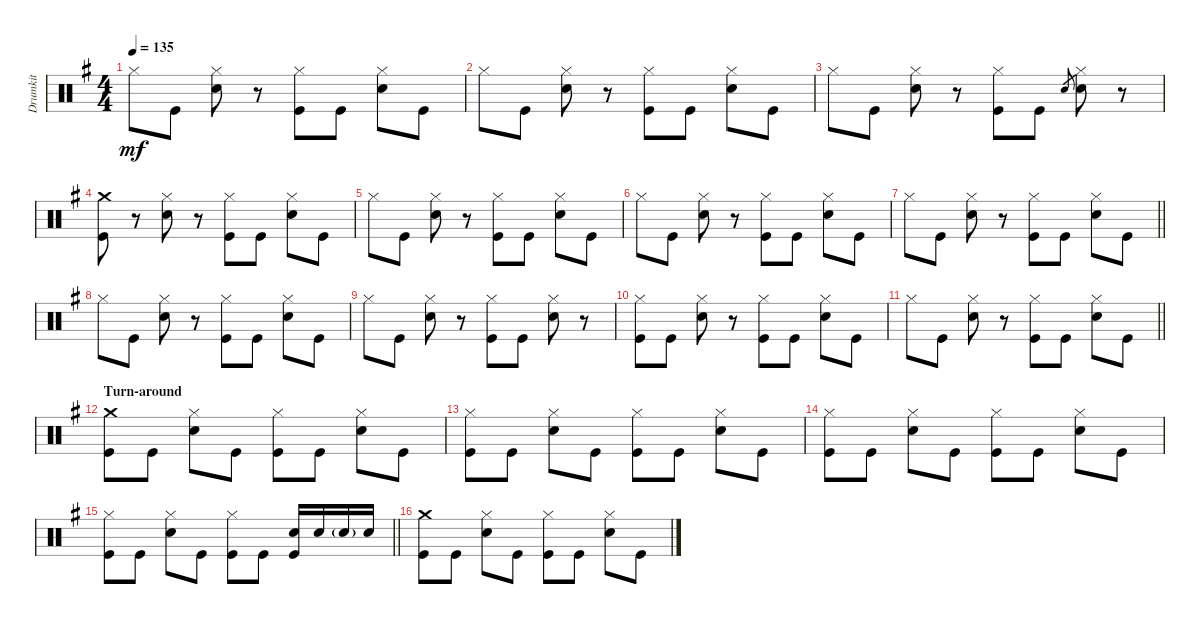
\track ("Drumkit" "Drumkit") {instrument percussion}
\staff {score}
\articulation defaults
\ts (4 4)
\tempo 135
\clef neutral
\ks g "Hi-Hat (closed)".8{dy mf} "Kick (hit)".8
("Hi-Hat (closed)" "Snare (hit) 2").8 r.8 ("Hi-Hat (closed)" "Kick (hit)").8 "Kick (hit)".8 ("Hi-Hat (closed)" "Snare (hit) 2").8 "Kick (hit)".8 |
"Hi-Hat (closed)".8 "Kick (hit)".8 ("Hi-Hat (closed)" "Snare (hit) 2").8 r.8 ("Hi-Hat (closed)" "Kick (hit)").8 "Kick (hit)".8 ("Hi-Hat (closed)" "Snare (hit) 2").8 "Kick (hit)".8 |
"Hi-Hat (closed)".8 "Kick (hit)".8 ("Hi-Hat (closed)" "Snare (hit) 2").8 r.8 ("Hi-Hat (closed)" "Kick (hit)").8 "Kick (hit)".8 "Snare (hit)".8{gr} ("Hi-Hat (closed)" "Snare (hit) 2").8 r.8 |
("Kick (hit)" "Crash medium (hit)").8 r.8 ("Hi-Hat (closed)" "Snare (hit) 2").8 r.8 ("Hi-Hat (closed)" "Kick (hit)").8 "Kick (hit)".8 ("Hi-Hat (closed)" "Snare (hit) 2").8 "Kick (hit)".8 |
"Hi-Hat (closed)".8 "Kick (hit)".8 ("Hi-Hat (closed)" "Snare (hit) 2").8 r.8 ("Hi-Hat (closed)" "Kick (hit)").8 "Kick (hit)".8 ("Hi-Hat (closed)" "Snare (hit) 2").8 "Kick (hit)".8 |
"Hi-Hat (closed)".8 "Kick (hit)".8 ("Hi-Hat (closed)" "Snare (hit) 2").8 r.8 ("Hi-Hat (closed)" "Kick (hit)").8 "Kick (hit)".8 ("Hi-Hat (closed)" "Snare (hit) 2").8 "Kick (hit)".8 |
\barLineRight lightlight "Hi-Hat (closed)".8 "Kick (hit)".8
("Hi-Hat (closed)" "Snare (hit) 2").8 r.8 ("Hi-Hat (closed)" "Kick (hit)").8 "Kick (hit)".8 ("Hi-Hat (closed)" "Snare (hit) 2").8 "Kick (hit)".8 |
"Hi-Hat (closed)".8 "Kick (hit)".8 ("Hi-Hat (closed)" "Snare (hit) 2").8 r.8 ("Hi-Hat (closed)" "Kick (hit)").8 "Kick (hit)".8 ("Hi-Hat (closed)" "Snare (hit) 2").8 "Kick (hit)".8 |
"Hi-Hat (closed)".8 "Kick (hit)".8 ("Hi-Hat (closed)" "Snare (hit) 2").8 r.8 ("Hi-Hat (closed)" "Kick (hit)").8 "Kick (hit)".8 ("Hi-Hat (closed)" "Snare (hit) 2").8 r.8 |
("Kick (hit)" "Hi-Hat (closed)").8 "Kick (hit)".8 ("Hi-Hat (closed)" "Snare (hit) 2").8 r.8 ("Hi-Hat (closed)" "Kick (hit)").8 "Kick (hit)".8 ("Hi-Hat (closed)" "Snare (hit) 2").8 "Kick (hit)".8 |
\barLineRight lightlight "Hi-Hat (closed)".8 "Kick (hit)".8
("Hi-Hat (closed)" "Snare (hit) 2").8 r.8 ("Hi-Hat (closed)" "Kick (hit)").8 "Kick (hit)".8 ("Hi-Hat (closed)" "Snare (hit) 2").8 "Kick (hit)".8 |
\section ("" "Turn-around")
("Kick (hit)" "Crash medium (hit)").8 "Kick (hit)".8 ("Snare (hit) 2" "Hi-Hat (closed)").8 "Kick (hit)".8 ("Kick (hit)" "Hi-Hat (closed)").8 "Kick (hit)".8 ("Snare (hit) 2" "Hi-Hat (closed)").8 "Kick (hit)".8 |
("Kick (hit)" "Hi-Hat (closed)").8 "Kick (hit)".8 ("Snare (hit) 2" "Hi-Hat (closed)").8 "Kick (hit)".8 ("Kick (hit)" "Hi-Hat (closed)").8 "Kick (hit)".8 ("Snare (hit) 2" "Hi-Hat (closed)").8 "Kick (hit)".8 |
("Kick (hit)" "Hi-Hat (closed)").8 "Kick (hit)".8 ("Snare (hit) 2" "Hi-Hat (closed)").8 "Kick (hit)".8 ("Kick (hit)" "Hi-Hat (closed)").8 "Kick (hit)".8 ("Snare (hit) 2" "Hi-Hat (closed)").8 "Kick (hit)".8 |
\barLineRight lightlight
("Kick (hit)" "Hi-Hat (closed)").8 "Kick (hit)".8 ("Snare (hit) 2" "Hi-Hat (closed)").8 "Kick (hit)".8 ("Kick (hit)" "Hi-Hat (closed)").8 "Kick (hit)".8 ("Snare (hit) 2" "Kick (hit)").16 "Snare (hit) 2".16 "Snare (hit) 2"{g}.16 "Snare (hit) 2".16 |
("Kick (hit)" "Crash medium (hit)").8 "Kick (hit)".8 ("Snare (hit) 2" "Hi-Hat (closed)").8 "Kick (hit)".8 ("Kick (hit)" "Hi-Hat (closed)").8 "Kick (hit)".8 ("Snare (hit) 2" "Hi-Hat (closed)").8 "Kick (hit)".8
